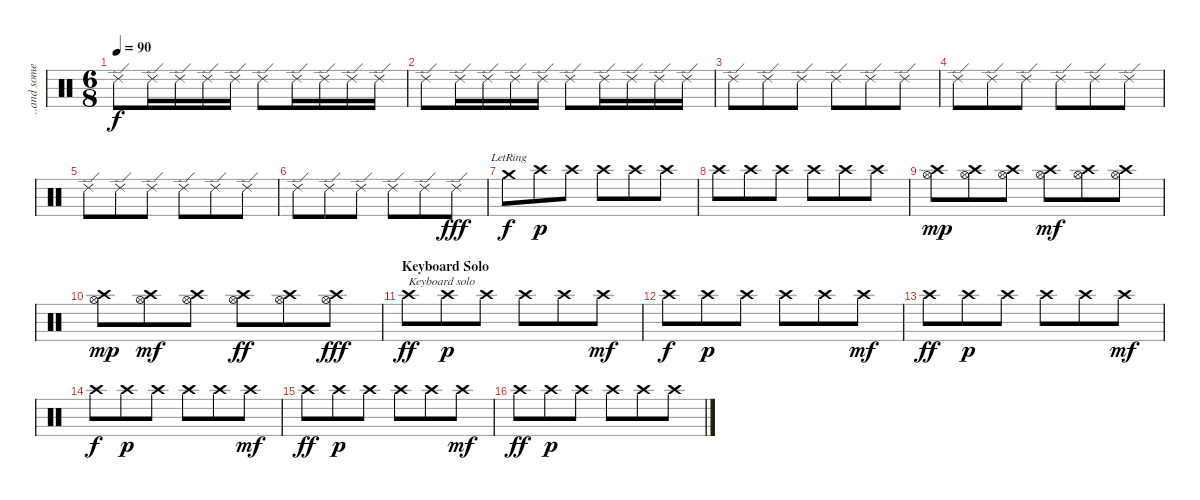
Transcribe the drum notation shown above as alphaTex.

\track ("..and some cymbals" "..and some") {instrument percussion}
\staff {score}
\articulation defaults
\ts (6 8)
\tempo 90
\clef neutral
\ks c "Ride (edge) 2".8{dy f} "Ride (edge) 2".16 "Ride (edge) 2".16 "Ride (edge) 2".16 "Ride (edge) 2".16 "Ride (edge) 2".8 "Ride (edge) 2".16 "Ride (edge) 2".16 "Ride (edge) 2".16 "Ride (edge) 2".16
|
"Ride (edge) 2".8 "Ride (edge) 2".16 "Ride (edge) 2".16 "Ride (edge) 2".16 "Ride (edge) 2".16 "Ride (edge) 2".8 "Ride (edge) 2".16 "Ride (edge) 2".16 "Ride (edge) 2".16 "Ride (edge) 2".16 |
"Ride (edge) 2".8 "Ride (edge) 2".8 "Ride (edge) 2".8 "Ride (edge) 2".8 "Ride (edge) 2".8 "Ride (edge) 2".8 |
"Ride (edge) 2".8 "Ride (edge) 2".8 "Ride (edge) 2".8 "Ride (edge) 2".8 "Ride (edge) 2".8 "Ride (edge) 2".8 |
"Ride (edge) 2".8 "Ride (edge) 2".8 "Ride (edge) 2".8 "Ride (edge) 2".8 "Ride (edge) 2".8 "Ride (edge) 2".8 |
"Ride (edge) 2".8 "Ride (edge) 2".8 "Ride (edge) 2".8 "Ride (edge) 2".8 "Ride (edge) 2".8 "Ride (edge) 2".8{dy fff} |
"Crash medium (hit)"{lr}.8{dy f} "Crash high (hit)".8{dy p} "Crash high (hit)".8 "Crash high (hit)".8 "Crash high (hit)".8 "Crash high (hit)".8 |
"Crash high (hit)".8 "Crash high (hit)".8 "Crash high (hit)".8 "Crash high (hit)".8 "Crash high (hit)".8 "Crash high (hit)".8 |
("Crash high (hit)" "Hi-Hat (open)").8{dy mp} ("Crash high (hit)" "Hi-Hat (open)").8 ("Crash high (hit)" "Hi-Hat (open)").8 ("Crash high (hit)" "Hi-Hat (open)").8{dy mf} ("Crash high (hit)" "Hi-Hat (open)").8 ("Crash high (hit)" "Hi-Hat (open)").8 |
("Crash high (hit)" "Hi-Hat (open)").8{dy mp} ("Crash high (hit)" "Hi-Hat (open)").8{dy mf} ("Crash high (hit)" "Hi-Hat (open)").8 ("Crash high (hit)" "Hi-Hat (open)").8{dy ff} ("Crash high (hit)" "Hi-Hat (open)").8 ("Crash high (hit)" "Hi-Hat (open)").8{dy fff} |
\section ("" "Keyboard Solo")
"Crash high (hit)".8{txt "Keyboard solo" dy ff} "Crash high (hit)".8{dy p} "Crash high (hit)".8 "Crash high (hit)".8 "Crash high (hit)".8 "Crash high (hit)".8{dy mf} |
"Crash high (hit)".8{dy f} "Crash high (hit)".8{dy p} "Crash high (hit)".8 "Crash high (hit)".8 "Crash high (hit)".8 "Crash high (hit)".8{dy mf} |
"Crash high (hit)".8{dy ff} "Crash high (hit)".8{dy p} "Crash high (hit)".8 "Crash high (hit)".8 "Crash high (hit)".8 "Crash high (hit)".8{dy mf} |
"Crash high (hit)".8{dy f} "Crash high (hit)".8{dy p} "Crash high (hit)".8 "Crash high (hit)".8 "Crash high (hit)".8 "Crash high (hit)".8{dy mf} |
"Crash high (hit)".8{dy ff} "Crash high (hit)".8{dy p} "Crash high (hit)".8 "Crash high (hit)".8 "Crash high (hit)".8 "Crash high (hit)".8{dy mf} |
"Crash high (hit)".8{dy ff} "Crash high (hit)".8{dy p} "Crash high (hit)".8 "Crash high (hit)".8 "Crash high (hit)".8 "Crash high (hit)".8
